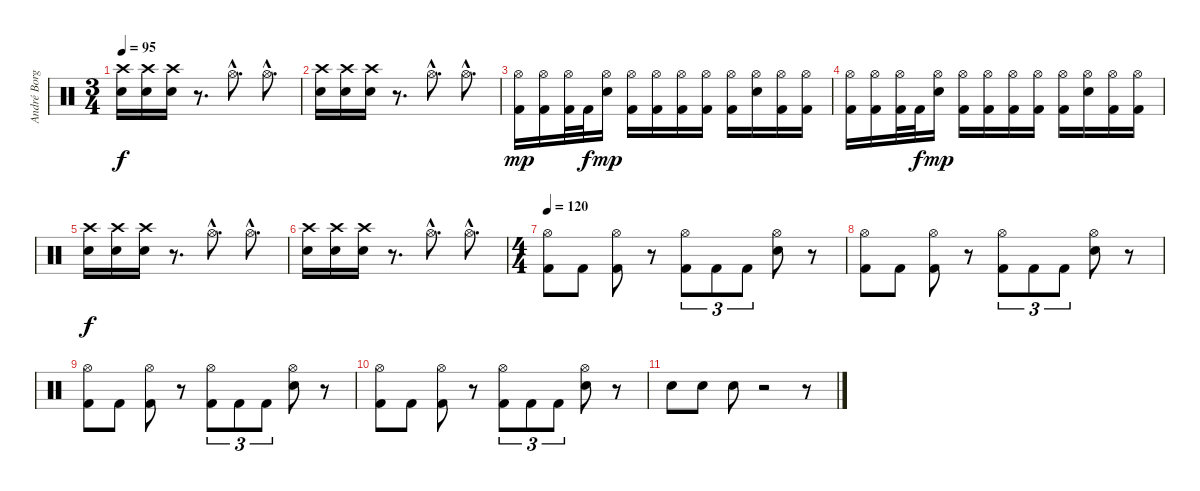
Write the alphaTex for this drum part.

\track ("André Borgman" "André Borg") {instrument percussion}
\staff {score}
\articulation defaults
\ts (3 4)
\tempo 95
\clef neutral
\ks c
("Crash high (hit)" "Electric Snare (hit)").16{dy f} ("Crash high (hit)" "Electric Snare (hit)").16 ("Crash high (hit)" "Electric Snare (hit)").16 r.8{d} "Hi-Hat (open)"{hac}.8{d} "Hi-Hat (open)"{hac}.8{d} |
("Crash high (hit)" "Electric Snare (hit)").16 ("Crash high (hit)" "Electric Snare (hit)").16 ("Crash high (hit)" "Electric Snare (hit)").16 r.8{d} "Hi-Hat (open)"{hac}.8{d} "Hi-Hat (open)"{hac}.8{d} |
("Hi-Hat (open)" "Kick (hit) 2").16{dy mp} ("Hi-Hat (open)" "Kick (hit) 2").16 ("Hi-Hat (open)" "Kick (hit) 2").32 "Kick (hit) 2".32{dy f} ("Hi-Hat (open)" "Electric Snare (hit)").16{dy mp} ("Hi-Hat (open)" "Kick (hit) 2").16 ("Hi-Hat (open)" "Kick (hit) 2").16 ("Hi-Hat (open)" "Kick (hit) 2").16 ("Hi-Hat (open)" "Kick (hit) 2").16 ("Hi-Hat (open)" "Kick (hit) 2").16 ("Hi-Hat (open)" "Electric Snare (hit)").16 ("Hi-Hat (open)" "Kick (hit) 2").16 ("Hi-Hat (open)" "Kick (hit) 2").16 |
("Hi-Hat (open)" "Kick (hit) 2").16 ("Hi-Hat (open)" "Kick (hit) 2").16 ("Hi-Hat (open)" "Kick (hit) 2").32 "Kick (hit) 2".32{dy f} ("Hi-Hat (open)" "Electric Snare (hit)").16{dy mp} ("Hi-Hat (open)" "Kick (hit) 2").16 ("Hi-Hat (open)" "Kick (hit) 2").16 ("Hi-Hat (open)" "Kick (hit) 2").16 ("Hi-Hat (open)" "Kick (hit) 2").16 ("Hi-Hat (open)" "Kick (hit) 2").16 ("Hi-Hat (open)" "Electric Snare (hit)").16 ("Hi-Hat (open)" "Kick (hit) 2").16 ("Hi-Hat (open)" "Kick (hit) 2").16 |
("Crash high (hit)" "Electric Snare (hit)").16{dy f} ("Crash high (hit)" "Electric Snare (hit)").16 ("Crash high (hit)" "Electric Snare (hit)").16 r.8{d} "Hi-Hat (open)"{hac}.8{d} "Hi-Hat (open)"{hac}.8{d} |
("Crash high (hit)" "Electric Snare (hit)").16 ("Crash high (hit)" "Electric Snare (hit)").16 ("Crash high (hit)" "Electric Snare (hit)").16 r.8{d} "Hi-Hat (open)"{hac}.8{d} "Hi-Hat (open)"{hac}.8{d} |
\ts (4 4)
\tempo 120
("Hi-Hat (open)" "Kick (hit) 2").8 "Kick (hit) 2".8 ("Hi-Hat (open)" "Kick (hit) 2").8 r.8 ("Hi-Hat (open)" "Kick (hit) 2").8{tu (3 2)} "Kick (hit) 2".8{tu (3 2)} "Kick (hit) 2".8{tu (3 2)} ("Hi-Hat (open)" "Electric Snare (hit)").8 r.8 |
("Hi-Hat (open)" "Kick (hit) 2").8 "Kick (hit) 2".8 ("Hi-Hat (open)" "Kick (hit) 2").8 r.8 ("Hi-Hat (open)" "Kick (hit) 2").8{tu (3 2)} "Kick (hit) 2".8{tu (3 2)} "Kick (hit) 2".8{tu (3 2)} ("Hi-Hat (open)" "Electric Snare (hit)").8 r.8 |
("Hi-Hat (open)" "Kick (hit) 2").8 "Kick (hit) 2".8 ("Hi-Hat (open)" "Kick (hit) 2").8 r.8 ("Hi-Hat (open)" "Kick (hit) 2").8{tu (3 2)} "Kick (hit) 2".8{tu (3 2)} "Kick (hit) 2".8{tu (3 2)} ("Hi-Hat (open)" "Electric Snare (hit)").8 r.8 |
("Hi-Hat (open)" "Kick (hit) 2").8 "Kick (hit) 2".8 ("Hi-Hat (open)" "Kick (hit) 2").8 r.8 ("Hi-Hat (open)" "Kick (hit) 2").8{tu (3 2)} "Kick (hit) 2".8{tu (3 2)} "Kick (hit) 2".8{tu (3 2)} ("Hi-Hat (open)" "Electric Snare (hit)").8 r.8 |
"Electric Snare (hit)".8 "Electric Snare (hit)".8 "Electric Snare (hit)".8 r.2 r.8
